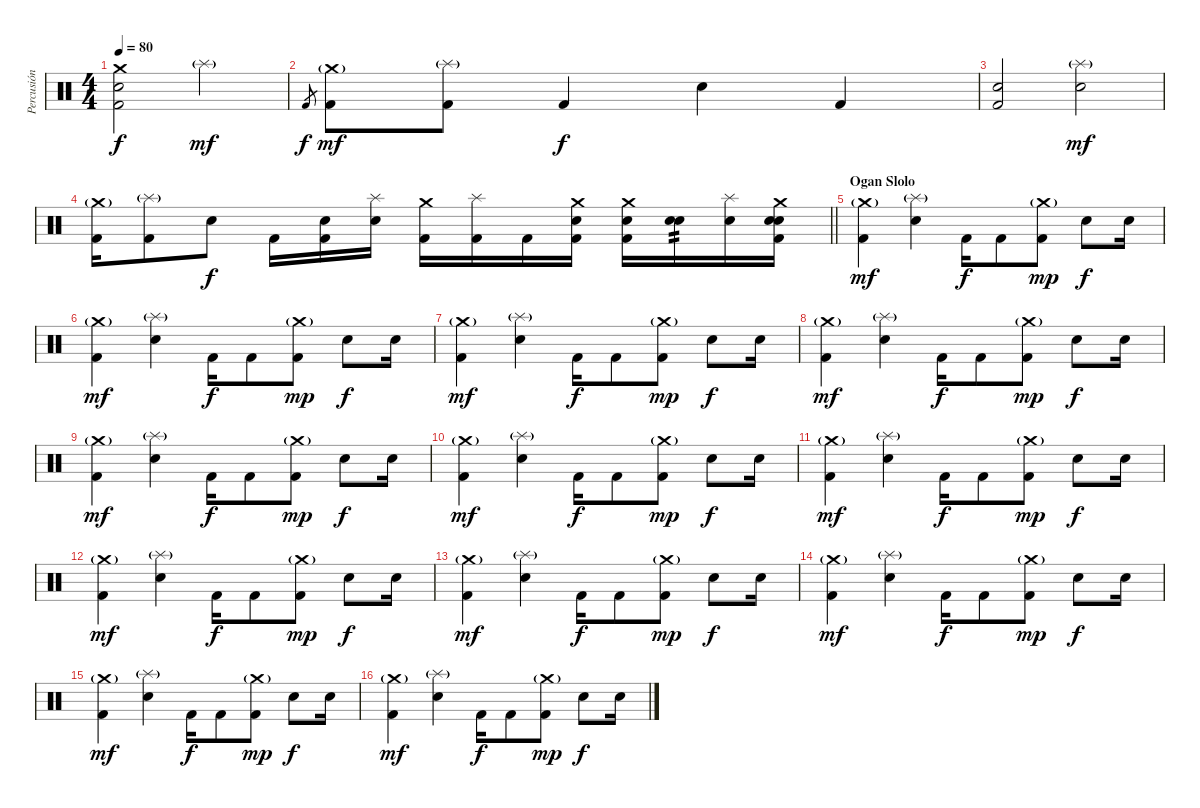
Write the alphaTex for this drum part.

\track ("Percusión" "Percusión") {instrument percussion}
\staff {score}
\articulation defaults
\ts (4 4)
\tempo 80
\clef neutral
\ks c
("Crash medium (hit)" "Kick (hit) 2" "Snare (hit) 2").2{dy f} "Splash (hit)"{g}.2{dy mf} |
"Kick (hit) 2".8{gr dy f} ("Crash medium (hit)"{g} "Kick (hit) 2").8{dy mf} ("Splash (hit)"{g} "Kick (hit) 2").8 "Kick (hit) 2".4{dy f} "Snare (hit) 2".4 "Kick (hit) 2".4 |
("Snare (hit)"{x} "Kick (hit) 2").2 ("Splash (hit)"{g} "Snare (hit) 2").2{dy mf} |
\barLineRight lightlight
("Crash medium (hit)"{g} "Kick (hit) 2").16 ("Splash (hit)"{g} "Kick (hit) 2").8 "Snare (hit) 2".8{dy f} "Kick (hit) 2".16 ("Snare (hit) 2" "Kick (hit) 2").16 ("Splash (hit)" "Snare (hit) 2").16 ("Crash medium (hit)" "Kick (hit) 2").16 ("Splash (hit)" "Kick (hit) 2").16 "Kick (hit) 2".16 ("Crash medium (hit)" "Snare (hit) 2" "Kick (hit) 2").16 ("Crash medium (hit)" "Snare (hit) 2" "Kick (hit) 2").16 ("Snare (hit) 2" "Electric Snare (hit)").16{tp 2} ("Splash (hit)" "Electric Snare (hit)").16 ("Crash medium (hit)" "Kick (hit) 2" "Snare (hit) 2" "Electric Snare (hit)").16 |
\section ("" "Ogan Slolo")
("Crash medium (hit)"{g} "Kick (hit) 2").4{dy mf} ("Splash (hit)"{g} "Snare (hit) 2").4 "Kick (hit) 2".16{dy f} "Kick (hit) 2".8 ("Crash medium (hit)"{g} "Kick (hit) 2").8{dy mp} "Snare (hit) 2".8{dy f} "Snare (hit)"{x}.16 |
("Crash medium (hit)"{g} "Kick (hit) 2").4{dy mf} ("Splash (hit)"{g} "Snare (hit) 2").4 "Kick (hit) 2".16{dy f} "Kick (hit) 2".8 ("Crash medium (hit)"{g} "Kick (hit) 2").8{dy mp} "Snare (hit) 2".8{dy f} "Snare (hit)"{x}.16 |
("Crash medium (hit)"{g} "Kick (hit) 2").4{dy mf} ("Splash (hit)"{g} "Snare (hit) 2").4 "Kick (hit) 2".16{dy f} "Kick (hit) 2".8 ("Crash medium (hit)"{g} "Kick (hit) 2").8{dy mp} "Snare (hit) 2".8{dy f} "Snare (hit)"{x}.16 |
("Crash medium (hit)"{g} "Kick (hit) 2").4{dy mf} ("Splash (hit)"{g} "Snare (hit) 2").4 "Kick (hit) 2".16{dy f} "Kick (hit) 2".8 ("Crash medium (hit)"{g} "Kick (hit) 2").8{dy mp} "Snare (hit) 2".8{dy f} "Snare (hit)"{x}.16 |
("Crash medium (hit)"{g} "Kick (hit) 2").4{dy mf} ("Splash (hit)"{g} "Snare (hit) 2").4 "Kick (hit) 2".16{dy f} "Kick (hit) 2".8 ("Crash medium (hit)"{g} "Kick (hit) 2").8{dy mp} "Snare (hit) 2".8{dy f} "Snare (hit)"{x}.16 |
("Crash medium (hit)"{g} "Kick (hit) 2").4{dy mf} ("Splash (hit)"{g} "Snare (hit) 2").4 "Kick (hit) 2".16{dy f} "Kick (hit) 2".8 ("Crash medium (hit)"{g} "Kick (hit) 2").8{dy mp} "Snare (hit) 2".8{dy f} "Snare (hit)"{x}.16 |
("Crash medium (hit)"{g} "Kick (hit) 2").4{dy mf} ("Splash (hit)"{g} "Snare (hit) 2").4 "Kick (hit) 2".16{dy f} "Kick (hit) 2".8 ("Crash medium (hit)"{g} "Kick (hit) 2").8{dy mp} "Snare (hit) 2".8{dy f} "Snare (hit)"{x}.16 |
("Crash medium (hit)"{g} "Kick (hit) 2").4{dy mf} ("Splash (hit)"{g} "Snare (hit) 2").4 "Kick (hit) 2".16{dy f} "Kick (hit) 2".8 ("Crash medium (hit)"{g} "Kick (hit) 2").8{dy mp} "Snare (hit) 2".8{dy f} "Snare (hit)"{x}.16 |
("Crash medium (hit)"{g} "Kick (hit) 2").4{dy mf} ("Splash (hit)"{g} "Snare (hit) 2").4 "Kick (hit) 2".16{dy f} "Kick (hit) 2".8 ("Crash medium (hit)"{g} "Kick (hit) 2").8{dy mp} "Snare (hit) 2".8{dy f} "Snare (hit)"{x}.16 |
("Crash medium (hit)"{g} "Kick (hit) 2").4{dy mf} ("Splash (hit)"{g} "Snare (hit) 2").4 "Kick (hit) 2".16{dy f} "Kick (hit) 2".8 ("Crash medium (hit)"{g} "Kick (hit) 2").8{dy mp} "Snare (hit) 2".8{dy f} "Snare (hit)"{x}.16 |
("Crash medium (hit)"{g} "Kick (hit) 2").4{dy mf} ("Splash (hit)"{g} "Snare (hit) 2").4 "Kick (hit) 2".16{dy f} "Kick (hit) 2".8 ("Crash medium (hit)"{g} "Kick (hit) 2").8{dy mp} "Snare (hit) 2".8{dy f} "Snare (hit)"{x}.16 |
("Crash medium (hit)"{g} "Kick (hit) 2").4{dy mf} ("Splash (hit)"{g} "Snare (hit) 2").4 "Kick (hit) 2".16{dy f} "Kick (hit) 2".8 ("Crash medium (hit)"{g} "Kick (hit) 2").8{dy mp} "Snare (hit) 2".8{dy f} "Snare (hit)"{x}.16
